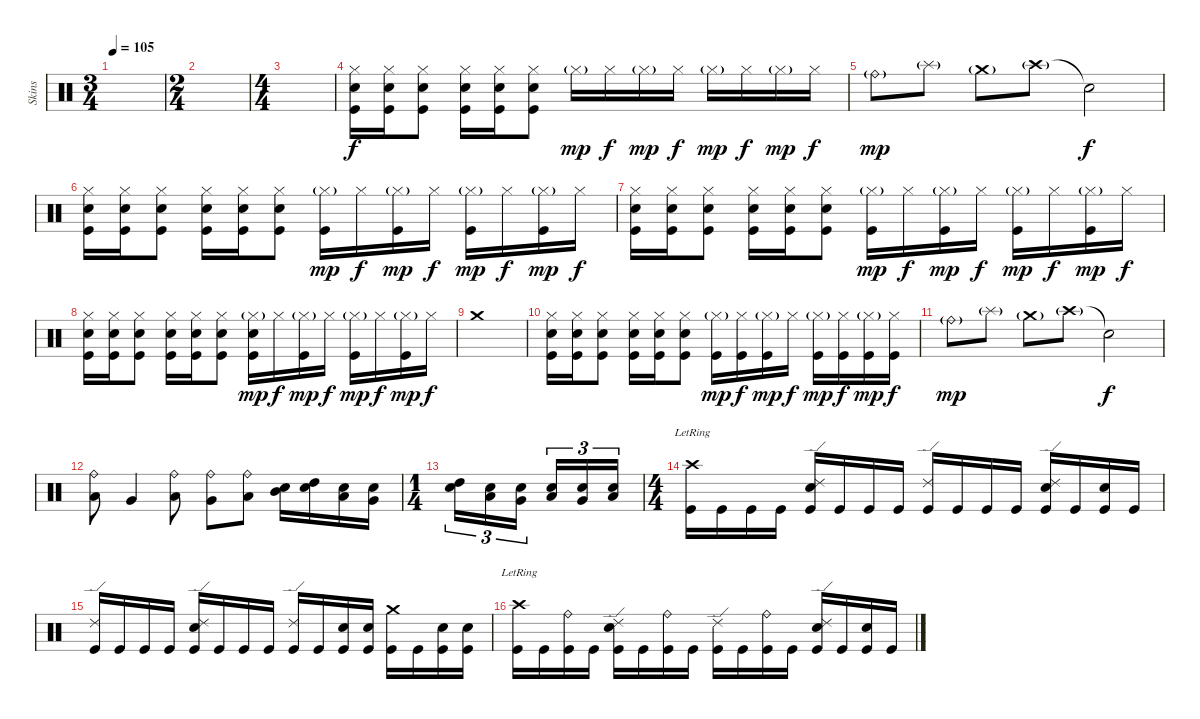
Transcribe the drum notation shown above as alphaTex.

\track ("Skins" "Skins") {instrument percussion}
\staff {score}
\articulation defaults
\ts (3 4)
\tempo 105
\clef neutral
\ks c
|
\ts (2 4)
|
\ts (4 4)
|
("Hi-Hat (closed)" "Electric Snare (hit)" "Kick (hit)").16 ("Hi-Hat (closed)" "Electric Snare (hit)" "Kick (hit)").16 ("Hi-Hat (closed)" "Electric Snare (hit)" "Kick (hit)").8 ("Hi-Hat (closed)" "Electric Snare (hit)" "Kick (hit)").16 ("Hi-Hat (closed)" "Electric Snare (hit)" "Kick (hit)").16 ("Hi-Hat (closed)" "Electric Snare (hit)" "Kick (hit)").8 "Hi-Hat (closed)"{g}.16{dy mp} "Hi-Hat (closed)".16{dy f} "Hi-Hat (closed)"{g}.16{dy mp} "Hi-Hat (closed)".16{dy f} "Hi-Hat (closed)"{g}.16{dy mp} "Hi-Hat (closed)".16{dy f} "Hi-Hat (closed)"{g}.16{dy mp} "Hi-Hat (closed)".16{dy f} |
"Ride (bell)"{g}.8{dy mp} "Splash (hit)"{g}.8 "Crash medium (hit)"{g}.8 "Crash high (hit)"{g}.8 "Snare (hit)"{t}.2{dy f} |
("Hi-Hat (closed)" "Electric Snare (hit)" "Kick (hit)").16 ("Hi-Hat (closed)" "Electric Snare (hit)" "Kick (hit)").16 ("Hi-Hat (closed)" "Electric Snare (hit)" "Kick (hit)").8 ("Hi-Hat (closed)" "Electric Snare (hit)" "Kick (hit)").16 ("Hi-Hat (closed)" "Electric Snare (hit)" "Kick (hit)").16 ("Hi-Hat (closed)" "Electric Snare (hit)" "Kick (hit)").8 ("Hi-Hat (closed)"{g} "Kick (hit)").16{dy mp} "Hi-Hat (closed)".16{dy f} ("Hi-Hat (closed)"{g} "Kick (hit)").16{dy mp} "Hi-Hat (closed)".16{dy f} ("Hi-Hat (closed)"{g} "Kick (hit)").16{dy mp} "Hi-Hat (closed)".16{dy f} ("Hi-Hat (closed)"{g} "Kick (hit)").16{dy mp} "Hi-Hat (closed)".16{dy f} |
("Hi-Hat (closed)" "Electric Snare (hit)" "Kick (hit)").16 ("Hi-Hat (closed)" "Electric Snare (hit)" "Kick (hit)").16 ("Hi-Hat (closed)" "Electric Snare (hit)" "Kick (hit)").8 ("Hi-Hat (closed)" "Electric Snare (hit)" "Kick (hit)").16 ("Hi-Hat (closed)" "Electric Snare (hit)" "Kick (hit)").16 ("Hi-Hat (closed)" "Electric Snare (hit)" "Kick (hit)").8 ("Hi-Hat (closed)"{g} "Kick (hit)").16{dy mp} "Hi-Hat (closed)".16{dy f} ("Hi-Hat (closed)"{g} "Kick (hit)").16{dy mp} "Hi-Hat (closed)".16{dy f} ("Hi-Hat (closed)"{g} "Kick (hit)").16{dy mp} "Hi-Hat (closed)".16{dy f} ("Hi-Hat (closed)"{g} "Kick (hit)").16{dy mp} "Hi-Hat (closed)".16{dy f} |
("Hi-Hat (closed)" "Electric Snare (hit)" "Kick (hit)").16 ("Hi-Hat (closed)" "Electric Snare (hit)" "Kick (hit)").16 ("Hi-Hat (closed)" "Electric Snare (hit)" "Kick (hit)").8 ("Hi-Hat (closed)" "Electric Snare (hit)" "Kick (hit)").16 ("Hi-Hat (closed)" "Electric Snare (hit)" "Kick (hit)").16 ("Hi-Hat (closed)" "Electric Snare (hit)" "Kick (hit)").8 ("Hi-Hat (closed)"{g} "Electric Snare (hit)" "Kick (hit)").16{dy mp} "Hi-Hat (closed)".16{dy f} ("Hi-Hat (closed)"{g} "Kick (hit)").16{dy mp} "Hi-Hat (closed)".16{dy f} ("Hi-Hat (closed)"{g} "Kick (hit)").16{dy mp} "Hi-Hat (closed)".16{dy f} ("Hi-Hat (closed)"{g} "Kick (hit)").16{dy mp} "Hi-Hat (closed)".16{dy f} |
"Crash medium (hit)".1 |
("Hi-Hat (closed)" "Electric Snare (hit)" "Kick (hit)").16 ("Hi-Hat (closed)" "Electric Snare (hit)" "Kick (hit)").16 ("Hi-Hat (closed)" "Electric Snare (hit)" "Kick (hit)").8 ("Hi-Hat (closed)" "Electric Snare (hit)" "Kick (hit)").16 ("Hi-Hat (closed)" "Electric Snare (hit)" "Kick (hit)").16 ("Hi-Hat (closed)" "Electric Snare (hit)" "Kick (hit)").8 ("Hi-Hat (closed)"{g} "Kick (hit)").16{dy mp} ("Hi-Hat (closed)" "Kick (hit)").16{dy f} ("Hi-Hat (closed)"{g} "Kick (hit)").16{dy mp} "Hi-Hat (closed)".16{dy f} ("Hi-Hat (closed)"{g} "Kick (hit)").16{dy mp} ("Hi-Hat (closed)" "Kick (hit)").16{dy f} ("Hi-Hat (closed)"{g} "Kick (hit)").16{dy mp} ("Hi-Hat (closed)" "Kick (hit)").16{dy f} |
"Ride (bell)"{g}.8{dy mp} "Splash (hit)"{g}.8 "Crash medium (hit)"{g}.8 "Crash high (hit)"{g}.8 "Snare (hit)"{t}.2{dy f} |
("Ride (bell)" "Low Tom (hit)").8 "Very Low Tom (hit)".4 ("Ride (bell)" "Low Tom (hit)").8 ("Ride (bell)" "Very Low Tom (hit)").8 ("Ride (bell)" "Low Floor Tom (hit)").8 ("Mid Tom (hit)" "Electric Snare (hit)").16 ("High Tom (hit)" "Electric Snare (hit)").16 ("Low Tom (hit)" "Electric Snare (hit)").16 ("Very Low Tom (hit)" "Electric Snare (hit)").16 |
\ts (1 4)
("High Tom (hit)" "Electric Snare (hit)").16{tu (3 2)} ("Low Tom (hit)" "Electric Snare (hit)").16{tu (3 2)} ("Very Low Tom (hit)" "Electric Snare (hit)").16{tu (3 2)} ("Low Tom (hit)" "Electric Snare (hit)").16{tu (3 2)} ("Very Low Tom (hit)" "Electric Snare (hit)").16{tu (3 2)} ("Low Floor Tom (hit)" "Electric Snare (hit)").16{tu (3 2)} |
\ts (4 4)
("Crash high (hit)"{lr} "Kick (hit)").16 "Kick (hit)".16 "Kick (hit)".16 "Kick (hit)".16 ("Ride (edge) 2" "Electric Snare (hit)" "Kick (hit)").16 "Kick (hit)".16 "Kick (hit)".16 "Kick (hit)".16 ("Ride (edge) 2" "Kick (hit)").16 "Kick (hit)".16 "Kick (hit)".16 "Kick (hit)".16 ("Ride (edge) 2" "Electric Snare (hit)" "Kick (hit)").16 "Kick (hit)".16 ("Electric Snare (hit)" "Kick (hit)").16 "Kick (hit)".16 |
("Ride (edge) 2" "Kick (hit)").16 "Kick (hit)".16 "Kick (hit)".16 "Kick (hit)".16 ("Ride (edge) 2" "Electric Snare (hit)" "Kick (hit)").16 "Kick (hit)".16 "Kick (hit)".16 "Kick (hit)".16 ("Ride (edge) 2" "Kick (hit)").16 "Kick (hit)".16 ("Electric Snare (hit)" "Kick (hit)").16 ("Electric Snare (hit)" "Kick (hit)").16 ("Crash medium (hit)" "Kick (hit)").16 "Kick (hit)".16 ("Electric Snare (hit)" "Kick (hit)").16 ("Electric Snare (hit)" "Kick (hit)").16 |
("Crash high (hit)"{lr} "Kick (hit)").16 "Kick (hit)".16 ("Ride (bell)" "Kick (hit)").16 "Kick (hit)".16 ("Ride (edge) 2" "Electric Snare (hit)" "Kick (hit)").16 "Kick (hit)".16 ("Ride (bell)" "Kick (hit)").16 "Kick (hit)".16 ("Ride (edge) 2" "Kick (hit)").16 "Kick (hit)".16 ("Ride (bell)" "Kick (hit)").16 "Kick (hit)".16 ("Ride (edge) 2" "Electric Snare (hit)" "Kick (hit)").16 "Kick (hit)".16 ("Electric Snare (hit)" "Kick (hit)").16 "Kick (hit)".16
